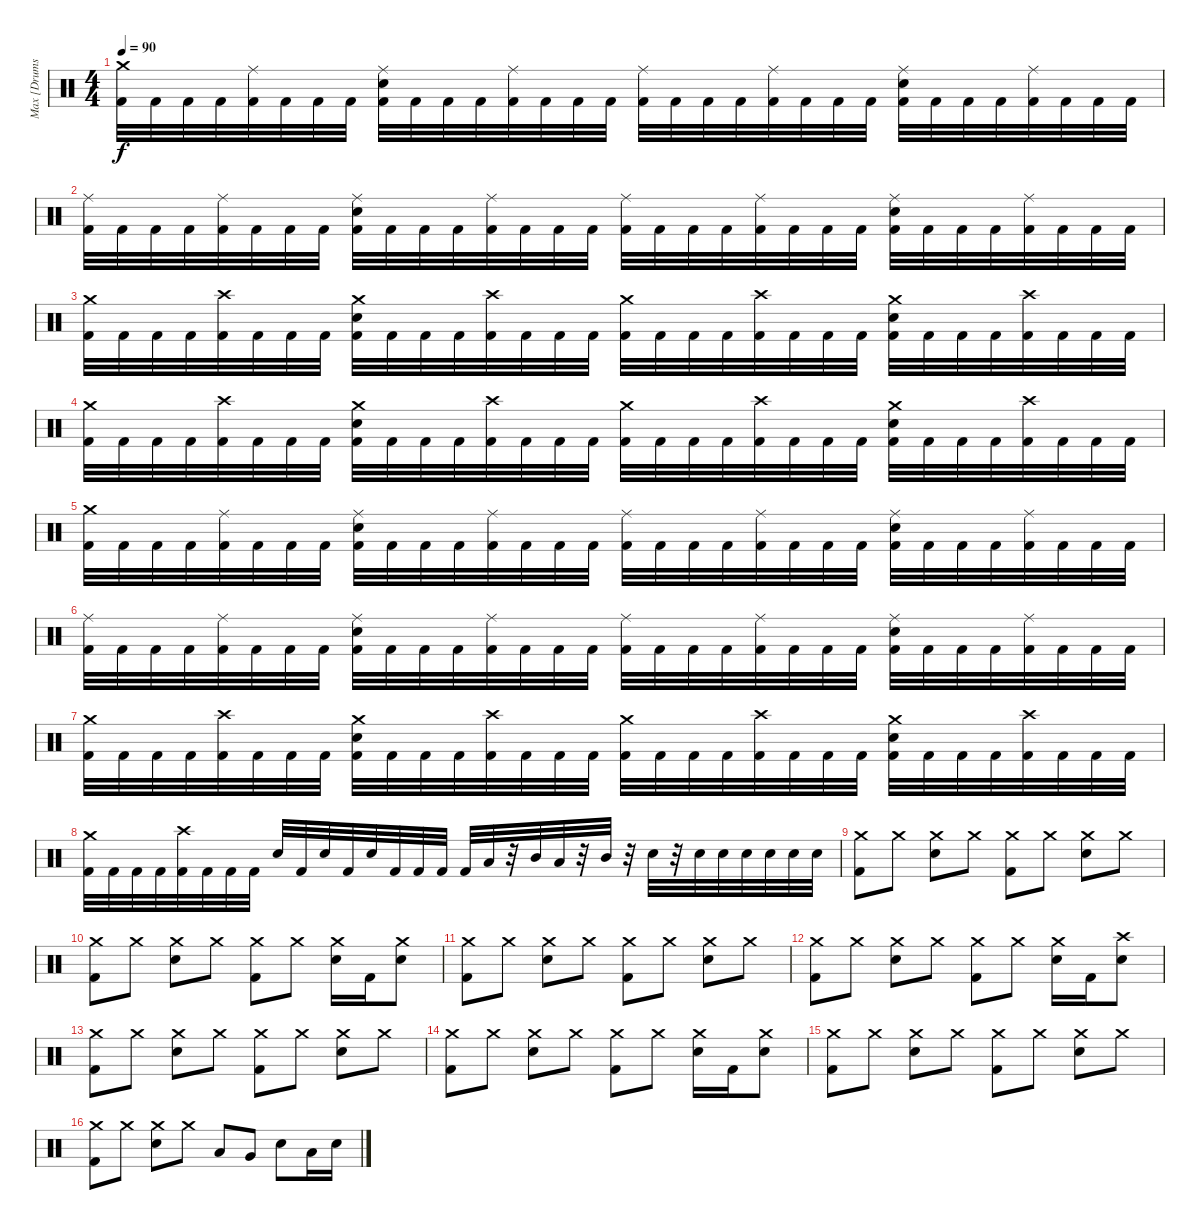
\track ("Max [Drums]" "Max [Drums") {instrument percussion}
\staff {score}
\articulation defaults
\ts (4 4)
\tempo 90
\clef neutral
\ks c
("Crash medium (hit)" "Kick (hit) 2").32{dy f} "Kick (hit) 2".32 "Kick (hit) 2".32 "Kick (hit) 2".32 ("Ride (middle)" "Kick (hit) 2").32 "Kick (hit) 2".32 "Kick (hit) 2".32 "Kick (hit) 2".32 ("Ride (middle)" "Snare (hit) 2" "Kick (hit) 2").32 "Kick (hit) 2".32 "Kick (hit) 2".32 "Kick (hit) 2".32 ("Ride (middle)" "Kick (hit) 2").32 "Kick (hit) 2".32 "Kick (hit) 2".32 "Kick (hit) 2".32 ("Ride (middle)" "Kick (hit) 2").32 "Kick (hit) 2".32 "Kick (hit) 2".32 "Kick (hit) 2".32 ("Ride (middle)" "Kick (hit) 2").32 "Kick (hit) 2".32 "Kick (hit) 2".32 "Kick (hit) 2".32 ("Ride (middle)" "Snare (hit) 2" "Kick (hit) 2").32 "Kick (hit) 2".32 "Kick (hit) 2".32 "Kick (hit) 2".32 ("Ride (middle)" "Kick (hit) 2").32 "Kick (hit) 2".32 "Kick (hit) 2".32 "Kick (hit) 2".32 |
("Ride (middle)" "Kick (hit) 2").32 "Kick (hit) 2".32 "Kick (hit) 2".32 "Kick (hit) 2".32 ("Ride (middle)" "Kick (hit) 2").32 "Kick (hit) 2".32 "Kick (hit) 2".32 "Kick (hit) 2".32 ("Ride (middle)" "Snare (hit) 2" "Kick (hit) 2").32 "Kick (hit) 2".32 "Kick (hit) 2".32 "Kick (hit) 2".32 ("Ride (middle)" "Kick (hit) 2").32 "Kick (hit) 2".32 "Kick (hit) 2".32 "Kick (hit) 2".32 ("Ride (middle)" "Kick (hit) 2").32 "Kick (hit) 2".32 "Kick (hit) 2".32 "Kick (hit) 2".32 ("Ride (middle)" "Kick (hit) 2").32 "Kick (hit) 2".32 "Kick (hit) 2".32 "Kick (hit) 2".32 ("Ride (middle)" "Snare (hit) 2" "Kick (hit) 2").32 "Kick (hit) 2".32 "Kick (hit) 2".32 "Kick (hit) 2".32 ("Ride (middle)" "Kick (hit) 2").32 "Kick (hit) 2".32 "Kick (hit) 2".32 "Kick (hit) 2".32 |
("Crash medium (hit)" "Kick (hit) 2").32 "Kick (hit) 2".32 "Kick (hit) 2".32 "Kick (hit) 2".32 ("Crash high (hit)" "Kick (hit) 2").32 "Kick (hit) 2".32 "Kick (hit) 2".32 "Kick (hit) 2".32 ("Crash medium (hit)" "Snare (hit) 2" "Kick (hit) 2").32 "Kick (hit) 2".32 "Kick (hit) 2".32 "Kick (hit) 2".32 ("Crash high (hit)" "Kick (hit) 2").32 "Kick (hit) 2".32 "Kick (hit) 2".32 "Kick (hit) 2".32 ("Crash medium (hit)" "Kick (hit) 2").32 "Kick (hit) 2".32 "Kick (hit) 2".32 "Kick (hit) 2".32 ("Crash high (hit)" "Kick (hit) 2").32 "Kick (hit) 2".32 "Kick (hit) 2".32 "Kick (hit) 2".32 ("Crash medium (hit)" "Snare (hit) 2" "Kick (hit) 2").32 "Kick (hit) 2".32 "Kick (hit) 2".32 "Kick (hit) 2".32 ("Crash high (hit)" "Kick (hit) 2").32 "Kick (hit) 2".32 "Kick (hit) 2".32 "Kick (hit) 2".32 |
("Crash medium (hit)" "Kick (hit) 2").32 "Kick (hit) 2".32 "Kick (hit) 2".32 "Kick (hit) 2".32 ("Crash high (hit)" "Kick (hit) 2").32 "Kick (hit) 2".32 "Kick (hit) 2".32 "Kick (hit) 2".32 ("Crash medium (hit)" "Snare (hit) 2" "Kick (hit) 2").32 "Kick (hit) 2".32 "Kick (hit) 2".32 "Kick (hit) 2".32 ("Crash high (hit)" "Kick (hit) 2").32 "Kick (hit) 2".32 "Kick (hit) 2".32 "Kick (hit) 2".32 ("Crash medium (hit)" "Kick (hit) 2").32 "Kick (hit) 2".32 "Kick (hit) 2".32 "Kick (hit) 2".32 ("Crash high (hit)" "Kick (hit) 2").32 "Kick (hit) 2".32 "Kick (hit) 2".32 "Kick (hit) 2".32 ("Crash medium (hit)" "Snare (hit) 2" "Kick (hit) 2").32 "Kick (hit) 2".32 "Kick (hit) 2".32 "Kick (hit) 2".32 ("Crash high (hit)" "Kick (hit) 2").32 "Kick (hit) 2".32 "Kick (hit) 2".32 "Kick (hit) 2".32 |
("Crash medium (hit)" "Kick (hit) 2").32 "Kick (hit) 2".32 "Kick (hit) 2".32 "Kick (hit) 2".32 ("Ride (middle)" "Kick (hit) 2").32 "Kick (hit) 2".32 "Kick (hit) 2".32 "Kick (hit) 2".32 ("Ride (middle)" "Snare (hit) 2" "Kick (hit) 2").32 "Kick (hit) 2".32 "Kick (hit) 2".32 "Kick (hit) 2".32 ("Ride (middle)" "Kick (hit) 2").32 "Kick (hit) 2".32 "Kick (hit) 2".32 "Kick (hit) 2".32 ("Ride (middle)" "Kick (hit) 2").32 "Kick (hit) 2".32 "Kick (hit) 2".32 "Kick (hit) 2".32 ("Ride (middle)" "Kick (hit) 2").32 "Kick (hit) 2".32 "Kick (hit) 2".32 "Kick (hit) 2".32 ("Ride (middle)" "Snare (hit) 2" "Kick (hit) 2").32 "Kick (hit) 2".32 "Kick (hit) 2".32 "Kick (hit) 2".32 ("Ride (middle)" "Kick (hit) 2").32 "Kick (hit) 2".32 "Kick (hit) 2".32 "Kick (hit) 2".32 |
("Ride (middle)" "Kick (hit) 2").32 "Kick (hit) 2".32 "Kick (hit) 2".32 "Kick (hit) 2".32 ("Ride (middle)" "Kick (hit) 2").32 "Kick (hit) 2".32 "Kick (hit) 2".32 "Kick (hit) 2".32 ("Ride (middle)" "Snare (hit) 2" "Kick (hit) 2").32 "Kick (hit) 2".32 "Kick (hit) 2".32 "Kick (hit) 2".32 ("Ride (middle)" "Kick (hit) 2").32 "Kick (hit) 2".32 "Kick (hit) 2".32 "Kick (hit) 2".32 ("Ride (middle)" "Kick (hit) 2").32 "Kick (hit) 2".32 "Kick (hit) 2".32 "Kick (hit) 2".32 ("Ride (middle)" "Kick (hit) 2").32 "Kick (hit) 2".32 "Kick (hit) 2".32 "Kick (hit) 2".32 ("Ride (middle)" "Snare (hit) 2" "Kick (hit) 2").32 "Kick (hit) 2".32 "Kick (hit) 2".32 "Kick (hit) 2".32 ("Ride (middle)" "Kick (hit) 2").32 "Kick (hit) 2".32 "Kick (hit) 2".32 "Kick (hit) 2".32 |
("Crash medium (hit)" "Kick (hit) 2").32 "Kick (hit) 2".32 "Kick (hit) 2".32 "Kick (hit) 2".32 ("Crash high (hit)" "Kick (hit) 2").32 "Kick (hit) 2".32 "Kick (hit) 2".32 "Kick (hit) 2".32 ("Crash medium (hit)" "Snare (hit) 2" "Kick (hit) 2").32 "Kick (hit) 2".32 "Kick (hit) 2".32 "Kick (hit) 2".32 ("Crash high (hit)" "Kick (hit) 2").32 "Kick (hit) 2".32 "Kick (hit) 2".32 "Kick (hit) 2".32 ("Crash medium (hit)" "Kick (hit) 2").32 "Kick (hit) 2".32 "Kick (hit) 2".32 "Kick (hit) 2".32 ("Crash high (hit)" "Kick (hit) 2").32 "Kick (hit) 2".32 "Kick (hit) 2".32 "Kick (hit) 2".32 ("Crash medium (hit)" "Snare (hit) 2" "Kick (hit) 2").32 "Kick (hit) 2".32 "Kick (hit) 2".32 "Kick (hit) 2".32 ("Crash high (hit)" "Kick (hit) 2").32 "Kick (hit) 2".32 "Kick (hit) 2".32 "Kick (hit) 2".32 |
("Crash medium (hit)" "Kick (hit) 2").32 "Kick (hit) 2".32 "Kick (hit) 2".32 "Kick (hit) 2".32 ("Crash high (hit)" "Kick (hit) 2").32 "Kick (hit) 2".32 "Kick (hit) 2".32 "Kick (hit) 2".32 "Snare (hit) 2".32 "Kick (hit) 2".32 "Snare (hit) 2".32 "Kick (hit) 2".32 "Snare (hit) 2".32 "Kick (hit) 2".32 "Kick (hit) 2".32 "Kick (hit) 2".32 "Kick (hit) 2".32 "Low Tom (hit)".32 r.32 "Mid Tom (hit)".32 "Low Tom (hit)".32 r.32 "Mid Tom (hit)".32 r.32 "Snare (hit) 2".32 r.32 "Snare (hit) 2".32 "Snare (hit) 2".32 "Snare (hit) 2".32 "Snare (hit) 2".32 "Snare (hit) 2".32 "Snare (hit) 2".32 |
("Crash medium (hit)" "Kick (hit) 2").8 "Crash medium (hit)".8 ("Crash medium (hit)" "Snare (hit) 2").8 "Crash medium (hit)".8 ("Crash medium (hit)" "Kick (hit) 2").8 "Crash medium (hit)".8 ("Crash medium (hit)" "Snare (hit) 2").8 "Crash medium (hit)".8 |
("Crash medium (hit)" "Kick (hit) 2").8 "Crash medium (hit)".8 ("Crash medium (hit)" "Snare (hit) 2").8 "Crash medium (hit)".8 ("Crash medium (hit)" "Kick (hit) 2").8 "Crash medium (hit)".8 ("Crash medium (hit)" "Snare (hit) 2").16 "Kick (hit) 2".16 ("Crash medium (hit)" "Snare (hit) 2").8 |
("Crash medium (hit)" "Kick (hit) 2").8 "Crash medium (hit)".8 ("Crash medium (hit)" "Snare (hit) 2").8 "Crash medium (hit)".8 ("Crash medium (hit)" "Kick (hit) 2").8 "Crash medium (hit)".8 ("Crash medium (hit)" "Snare (hit) 2").8 "Crash medium (hit)".8 |
("Crash medium (hit)" "Kick (hit) 2").8 "Crash medium (hit)".8 ("Crash medium (hit)" "Snare (hit) 2").8 "Crash medium (hit)".8 ("Crash medium (hit)" "Kick (hit) 2").8 "Crash medium (hit)".8 ("Crash medium (hit)" "Snare (hit) 2").16 "Kick (hit) 2".16 ("Crash high (hit)" "Snare (hit) 2").8 |
("Crash medium (hit)" "Kick (hit) 2").8 "Crash medium (hit)".8 ("Crash medium (hit)" "Snare (hit) 2").8 "Crash medium (hit)".8 ("Crash medium (hit)" "Kick (hit) 2").8 "Crash medium (hit)".8 ("Crash medium (hit)" "Snare (hit) 2").8 "Crash medium (hit)".8 |
("Crash medium (hit)" "Kick (hit) 2").8 "Crash medium (hit)".8 ("Crash medium (hit)" "Snare (hit) 2").8 "Crash medium (hit)".8 ("Crash medium (hit)" "Kick (hit) 2").8 "Crash medium (hit)".8 ("Crash medium (hit)" "Snare (hit) 2").16 "Kick (hit) 2".16 ("Crash medium (hit)" "Snare (hit) 2").8 |
("Crash medium (hit)" "Kick (hit) 2").8 "Crash medium (hit)".8 ("Crash medium (hit)" "Snare (hit) 2").8 "Crash medium (hit)".8 ("Crash medium (hit)" "Kick (hit) 2").8 "Crash medium (hit)".8 ("Crash medium (hit)" "Snare (hit) 2").8 "Crash medium (hit)".8 |
("Crash medium (hit)" "Kick (hit) 2").8 "Crash medium (hit)".8 ("Crash medium (hit)" "Snare (hit) 2").8 "Crash medium (hit)".8 "Low Tom (hit)".8 "Very Low Tom (hit)".8 "Snare (hit) 2".8 "Low Tom (hit)".16 "Snare (hit) 2".16
